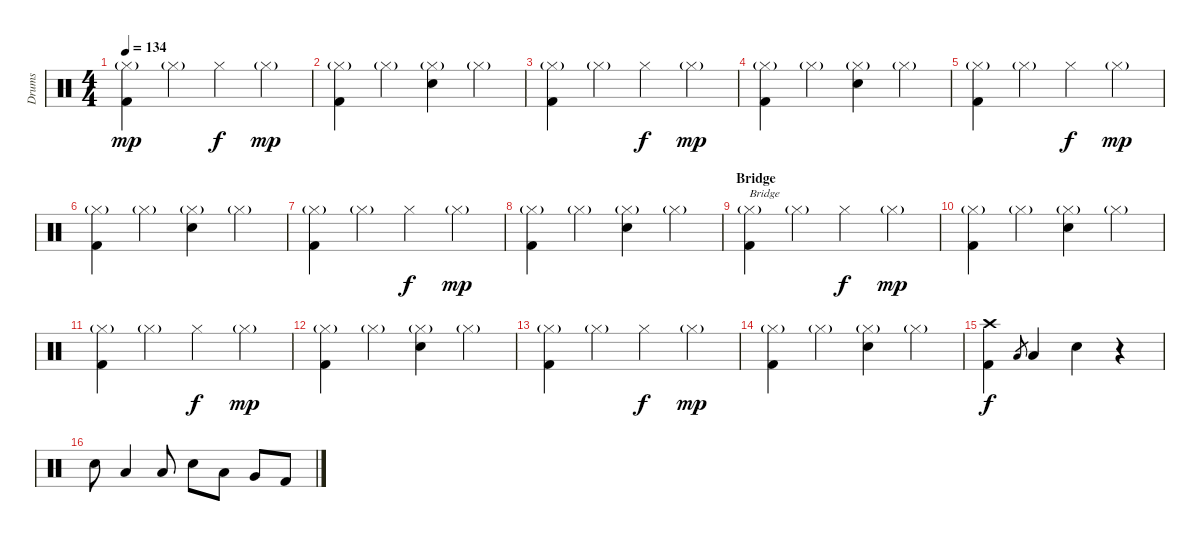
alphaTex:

\track ("Drums" "Drums") {instrument percussion}
\staff {score}
\articulation defaults
\ts (4 4)
\tempo 134
\clef neutral
\ks c
("Hi-Hat (closed)"{g} "Kick (hit) 2").4{dy mp} "Hi-Hat (closed)"{g}.4 "Hi-Hat (closed)".4{dy f} "Hi-Hat (closed)"{g}.4{dy mp} |
("Hi-Hat (closed)"{g} "Kick (hit) 2").4 "Hi-Hat (closed)"{g}.4 ("Hi-Hat (closed)"{g} "Electric Snare (hit)").4 "Hi-Hat (closed)"{g}.4 |
("Hi-Hat (closed)"{g} "Kick (hit) 2").4 "Hi-Hat (closed)"{g}.4 "Hi-Hat (closed)".4{dy f} "Hi-Hat (closed)"{g}.4{dy mp} |
("Hi-Hat (closed)"{g} "Kick (hit) 2").4 "Hi-Hat (closed)"{g}.4 ("Hi-Hat (closed)"{g} "Electric Snare (hit)").4 "Hi-Hat (closed)"{g}.4 |
("Hi-Hat (closed)"{g} "Kick (hit) 2").4 "Hi-Hat (closed)"{g}.4 "Hi-Hat (closed)".4{dy f} "Hi-Hat (closed)"{g}.4{dy mp} |
("Hi-Hat (closed)"{g} "Kick (hit) 2").4 "Hi-Hat (closed)"{g}.4 ("Hi-Hat (closed)"{g} "Electric Snare (hit)").4 "Hi-Hat (closed)"{g}.4 |
("Hi-Hat (closed)"{g} "Kick (hit) 2").4 "Hi-Hat (closed)"{g}.4 "Hi-Hat (closed)".4{dy f} "Hi-Hat (closed)"{g}.4{dy mp} |
("Hi-Hat (closed)"{g} "Kick (hit) 2").4 "Hi-Hat (closed)"{g}.4 ("Hi-Hat (closed)"{g} "Electric Snare (hit)").4 "Hi-Hat (closed)"{g}.4 |
\section ("" "Bridge")
("Hi-Hat (closed)"{g} "Kick (hit) 2").4{txt "Bridge"} "Hi-Hat (closed)"{g}.4 "Hi-Hat (closed)".4{dy f} "Hi-Hat (closed)"{g}.4{dy mp} |
("Hi-Hat (closed)"{g} "Kick (hit) 2").4 "Hi-Hat (closed)"{g}.4 ("Hi-Hat (closed)"{g} "Electric Snare (hit)").4 "Hi-Hat (closed)"{g}.4 |
("Hi-Hat (closed)"{g} "Kick (hit) 2").4 "Hi-Hat (closed)"{g}.4 "Hi-Hat (closed)".4{dy f} "Hi-Hat (closed)"{g}.4{dy mp} |
("Hi-Hat (closed)"{g} "Kick (hit) 2").4 "Hi-Hat (closed)"{g}.4 ("Hi-Hat (closed)"{g} "Electric Snare (hit)").4 "Hi-Hat (closed)"{g}.4 |
("Hi-Hat (closed)"{g} "Kick (hit) 2").4 "Hi-Hat (closed)"{g}.4 "Hi-Hat (closed)".4{dy f} "Hi-Hat (closed)"{g}.4{dy mp} |
("Hi-Hat (closed)"{g} "Kick (hit) 2").4 "Hi-Hat (closed)"{g}.4 ("Hi-Hat (closed)"{g} "Electric Snare (hit)").4 "Hi-Hat (closed)"{g}.4 |
("Crash high (hit)" "Kick (hit) 2").4{dy f} "Low Tom (hit)".8{gr} "Low Tom (hit)".4 "Electric Snare (hit)".4 r.4 |
"Electric Snare (hit)".8 "Low Tom (hit)".4 "Low Tom (hit)".8 "Electric Snare (hit)".8 "Low Tom (hit)".8 "Very Low Tom (hit)".8 "Kick (hit) 2".8
